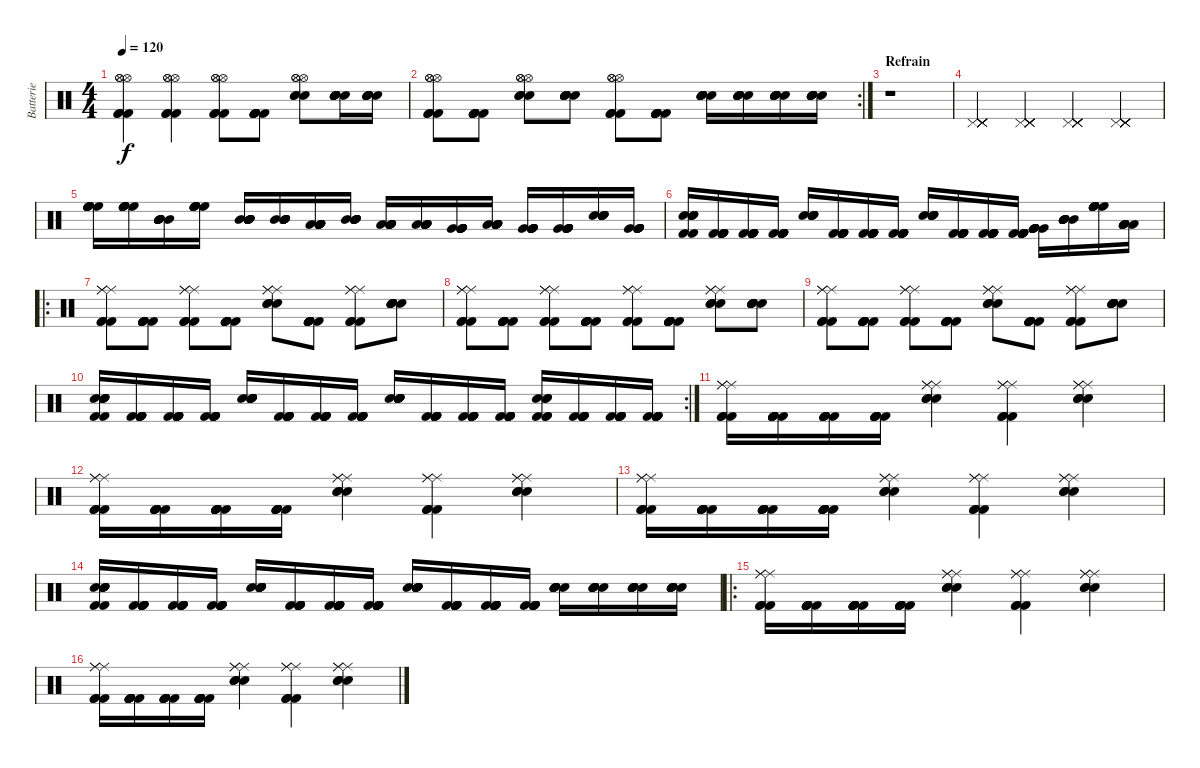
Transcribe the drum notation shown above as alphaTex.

\track ("Batterie" "Batterie") {instrument percussion}
\staff {score}
\articulation defaults
\ts (4 4)
\tempo 120
\clef neutral
\ks c
("Hi-Hat (open)" "Hi-Hat (open)" "Hi-Hat (open)" "Kick (hit) 2" "Kick (hit) 2" "Kick (hit) 2").4{dy f} ("Hi-Hat (open)" "Hi-Hat (open)" "Hi-Hat (open)" "Kick (hit) 2" "Kick (hit) 2" "Kick (hit) 2").4 ("Hi-Hat (open)" "Hi-Hat (open)" "Hi-Hat (open)" "Kick (hit) 2" "Kick (hit) 2" "Kick (hit) 2").8 ("Kick (hit) 2" "Kick (hit) 2" "Kick (hit) 2" "Kick (hit) 2" "Kick (hit) 2" "Kick (hit) 2").8 ("Hi-Hat (open)" "Hi-Hat (open)" "Hi-Hat (open)" "Snare (hit) 2" "Snare (hit) 2" "Snare (hit) 2").8 ("Snare (hit) 2" "Snare (hit) 2" "Snare (hit) 2" "Snare (hit) 2" "Snare (hit) 2" "Snare (hit) 2").16 ("Snare (hit) 2" "Snare (hit) 2" "Snare (hit) 2" "Snare (hit) 2" "Snare (hit) 2" "Snare (hit) 2").16 |
\rc 2
("Hi-Hat (open)" "Hi-Hat (open)" "Hi-Hat (open)" "Kick (hit) 2" "Kick (hit) 2" "Kick (hit) 2").8 ("Kick (hit) 2" "Kick (hit) 2" "Kick (hit) 2" "Kick (hit) 2" "Kick (hit) 2" "Kick (hit) 2").8 ("Hi-Hat (open)" "Hi-Hat (open)" "Hi-Hat (open)" "Snare (hit) 2" "Snare (hit) 2" "Snare (hit) 2").8 ("Snare (hit) 2" "Snare (hit) 2" "Snare (hit) 2" "Snare (hit) 2" "Snare (hit) 2" "Snare (hit) 2").8 ("Hi-Hat (open)" "Kick (hit) 2" "Kick (hit) 2" "Kick (hit) 2" "Hi-Hat (open)" "Hi-Hat (open)").8 ("Kick (hit) 2" "Kick (hit) 2" "Kick (hit) 2" "Kick (hit) 2" "Kick (hit) 2" "Kick (hit) 2").8 ("Snare (hit) 2" "Snare (hit) 2" "Snare (hit) 2" "Snare (hit) 2" "Snare (hit) 2" "Snare (hit) 2").16 ("Snare (hit) 2" "Snare (hit) 2" "Snare (hit) 2" "Snare (hit) 2" "Snare (hit) 2" "Snare (hit) 2").16 ("Snare (hit) 2" "Snare (hit) 2" "Snare (hit) 2" "Snare (hit) 2" "Snare (hit) 2" "Snare (hit) 2").16 ("Snare (hit) 2" "Snare (hit) 2" "Snare (hit) 2" "Snare (hit) 2" "Snare (hit) 2" "Snare (hit) 2").16 |
\section ("" "Refrain")
r.1 |
("Pedal Hi-Hat (hit)" "Pedal Hi-Hat (hit)" "Pedal Hi-Hat (hit)" "Pedal Hi-Hat (hit)" "Pedal Hi-Hat (hit)" "Pedal Hi-Hat (hit)").4 ("Pedal Hi-Hat (hit)" "Pedal Hi-Hat (hit)" "Pedal Hi-Hat (hit)" "Pedal Hi-Hat (hit)" "Pedal Hi-Hat (hit)" "Pedal Hi-Hat (hit)").4 ("Pedal Hi-Hat (hit)" "Pedal Hi-Hat (hit)" "Pedal Hi-Hat (hit)" "Pedal Hi-Hat (hit)" "Pedal Hi-Hat (hit)" "Pedal Hi-Hat (hit)").4 ("Pedal Hi-Hat (hit)" "Pedal Hi-Hat (hit)" "Pedal Hi-Hat (hit)" "Pedal Hi-Hat (hit)" "Pedal Hi-Hat (hit)" "Pedal Hi-Hat (hit)").4 |
("High Floor Tom (hit)" "High Floor Tom (hit)" "High Floor Tom (hit)" "High Floor Tom (hit)" "High Floor Tom (hit)" "High Floor Tom (hit)").16 ("High Floor Tom (hit)" "High Floor Tom (hit)" "High Floor Tom (hit)" "High Floor Tom (hit)" "High Floor Tom (hit)" "High Floor Tom (hit)").16 ("Mid Tom (hit)" "Mid Tom (hit)" "Mid Tom (hit)" "Mid Tom (hit)" "Mid Tom (hit)" "Mid Tom (hit)").16 ("High Floor Tom (hit)" "High Floor Tom (hit)" "High Floor Tom (hit)" "High Floor Tom (hit)" "High Floor Tom (hit)" "High Floor Tom (hit)").16 ("Mid Tom (hit)" "Mid Tom (hit)" "Mid Tom (hit)" "Mid Tom (hit)" "Mid Tom (hit)" "Mid Tom (hit)").16 ("Mid Tom (hit)" "Mid Tom (hit)" "Mid Tom (hit)" "Mid Tom (hit)" "Mid Tom (hit)" "Mid Tom (hit)").16 ("Low Tom (hit)" "Low Tom (hit)" "Low Tom (hit)" "Low Tom (hit)" "Low Tom (hit)" "Low Tom (hit)").16 ("Mid Tom (hit)" "Mid Tom (hit)" "Mid Tom (hit)" "Mid Tom (hit)" "Mid Tom (hit)" "Mid Tom (hit)").16 ("Low Tom (hit)" "Low Tom (hit)" "Low Tom (hit)" "Low Tom (hit)" "Low Tom (hit)" "Low Tom (hit)").16 ("Low Tom (hit)" "Low Tom (hit)" "Low Tom (hit)" "Low Tom (hit)" "Low Tom (hit)" "Low Tom (hit)").16 ("Very Low Tom (hit)" "Very Low Tom (hit)" "Very Low Tom (hit)" "Very Low Tom (hit)" "Very Low Tom (hit)" "Very Low Tom (hit)").16 ("Low Tom (hit)" "Low Tom (hit)" "Low Tom (hit)" "Low Tom (hit)" "Low Tom (hit)" "Low Tom (hit)").16 ("Very Low Tom (hit)" "Very Low Tom (hit)" "Very Low Tom (hit)" "Very Low Tom (hit)" "Very Low Tom (hit)" "Very Low Tom (hit)").16 ("Very Low Tom (hit)" "Very Low Tom (hit)" "Very Low Tom (hit)" "Very Low Tom (hit)" "Very Low Tom (hit)" "Very Low Tom (hit)").16 ("Snare (hit) 2" "Snare (hit) 2" "Snare (hit) 2" "Snare (hit) 2" "Snare (hit) 2" "Snare (hit) 2").16 ("Very Low Tom (hit)" "Very Low Tom (hit)" "Very Low Tom (hit)" "Very Low Tom (hit)" "Very Low Tom (hit)" "Very Low Tom (hit)").16 |
("Snare (hit) 2" "Snare (hit) 2" "Snare (hit) 2" "Snare (hit) 2" "Kick (hit) 2" "Kick (hit) 2").16 ("Kick (hit) 2" "Kick (hit) 2" "Kick (hit) 2" "Kick (hit) 2" "Kick (hit) 2" "Kick (hit) 2").16 ("Kick (hit) 2" "Kick (hit) 2" "Kick (hit) 2" "Kick (hit) 2" "Kick (hit) 2" "Kick (hit) 2").16 ("Kick (hit) 2" "Kick (hit) 2" "Kick (hit) 2" "Kick (hit) 2" "Kick (hit) 2" "Kick (hit) 2").16 ("Snare (hit) 2" "Snare (hit) 2" "Snare (hit) 2" "Snare (hit) 2" "Snare (hit) 2" "Snare (hit) 2").16 ("Kick (hit) 2" "Kick (hit) 2" "Kick (hit) 2" "Kick (hit) 2" "Kick (hit) 2" "Kick (hit) 2").16 ("Kick (hit) 2" "Kick (hit) 2" "Kick (hit) 2" "Kick (hit) 2" "Kick (hit) 2" "Kick (hit) 2").16 ("Kick (hit) 2" "Kick (hit) 2" "Kick (hit) 2" "Kick (hit) 2" "Kick (hit) 2" "Kick (hit) 2").16 ("Snare (hit) 2" "Snare (hit) 2" "Snare (hit) 2" "Snare (hit) 2" "Snare (hit) 2" "Snare (hit) 2").16 ("Kick (hit) 2" "Kick (hit) 2" "Kick (hit) 2" "Kick (hit) 2" "Kick (hit) 2" "Kick (hit) 2").16 ("Kick (hit) 2" "Kick (hit) 2" "Kick (hit) 2" "Kick (hit) 2" "Kick (hit) 2" "Kick (hit) 2").16 ("Kick (hit) 2" "Kick (hit) 2" "Kick (hit) 2" "Kick (hit) 2" "Kick (hit) 2" "Kick (hit) 2").16 ("Very Low Tom (hit)" "Very Low Tom (hit)" "Very Low Tom (hit)" "Very Low Tom (hit)" "Very Low Tom (hit)" "Very Low Tom (hit)").16 ("Mid Tom (hit)" "Mid Tom (hit)" "Mid Tom (hit)" "Mid Tom (hit)" "Mid Tom (hit)" "Mid Tom (hit)").16 ("High Floor Tom (hit)" "High Floor Tom (hit)" "High Floor Tom (hit)" "High Floor Tom (hit)" "High Floor Tom (hit)" "High Floor Tom (hit)").16 ("Low Floor Tom (hit)" "Low Floor Tom (hit)" "Low Floor Tom (hit)" "Low Floor Tom (hit)" "Low Floor Tom (hit)" "Low Floor Tom (hit)").16 |
\ro
("Ride (middle)" "Ride (middle)" "Ride (middle)" "Kick (hit) 2" "Kick (hit) 2" "Kick (hit) 2").8 ("Kick (hit) 2" "Kick (hit) 2" "Kick (hit) 2" "Kick (hit) 2" "Kick (hit) 2" "Kick (hit) 2").8 ("Ride (middle)" "Ride (middle)" "Ride (middle)" "Kick (hit) 2" "Kick (hit) 2" "Kick (hit) 2").8 ("Kick (hit) 2" "Kick (hit) 2" "Kick (hit) 2" "Kick (hit) 2" "Kick (hit) 2" "Kick (hit) 2").8 ("Snare (hit) 2" "Snare (hit) 2" "Ride (middle)" "Ride (middle)" "Ride (middle)" "Snare (hit) 2").8 ("Kick (hit) 2" "Kick (hit) 2" "Kick (hit) 2" "Kick (hit) 2" "Kick (hit) 2" "Kick (hit) 2").8 ("Ride (middle)" "Ride (middle)" "Ride (middle)" "Kick (hit) 2" "Kick (hit) 2" "Kick (hit) 2").8 ("Snare (hit) 2" "Snare (hit) 2" "Snare (hit) 2" "Snare (hit) 2" "Snare (hit) 2" "Snare (hit) 2").8 |
("Ride (middle)" "Ride (middle)" "Ride (middle)" "Kick (hit) 2" "Kick (hit) 2" "Kick (hit) 2").8 ("Kick (hit) 2" "Kick (hit) 2" "Kick (hit) 2" "Kick (hit) 2" "Kick (hit) 2" "Kick (hit) 2").8 ("Ride (middle)" "Ride (middle)" "Ride (middle)" "Kick (hit) 2" "Kick (hit) 2" "Kick (hit) 2").8 ("Kick (hit) 2" "Kick (hit) 2" "Kick (hit) 2" "Kick (hit) 2" "Kick (hit) 2" "Kick (hit) 2").8 ("Kick (hit) 2" "Kick (hit) 2" "Ride (middle)" "Ride (middle)" "Ride (middle)" "Kick (hit) 2").8 ("Kick (hit) 2" "Kick (hit) 2" "Kick (hit) 2" "Kick (hit) 2" "Kick (hit) 2" "Kick (hit) 2").8 ("Ride (middle)" "Ride (middle)" "Ride (middle)" "Snare (hit) 2" "Snare (hit) 2" "Snare (hit) 2").8 ("Snare (hit) 2" "Snare (hit) 2" "Snare (hit) 2" "Snare (hit) 2" "Snare (hit) 2" "Snare (hit) 2").8 |
("Ride (middle)" "Ride (middle)" "Ride (middle)" "Kick (hit) 2" "Kick (hit) 2" "Kick (hit) 2").8 ("Kick (hit) 2" "Kick (hit) 2" "Kick (hit) 2" "Kick (hit) 2" "Kick (hit) 2" "Kick (hit) 2").8 ("Ride (middle)" "Ride (middle)" "Ride (middle)" "Kick (hit) 2" "Kick (hit) 2" "Kick (hit) 2").8 ("Kick (hit) 2" "Kick (hit) 2" "Kick (hit) 2" "Kick (hit) 2" "Kick (hit) 2" "Kick (hit) 2").8 ("Snare (hit) 2" "Snare (hit) 2" "Ride (middle)" "Ride (middle)" "Ride (middle)" "Snare (hit) 2").8 ("Kick (hit) 2" "Kick (hit) 2" "Kick (hit) 2" "Kick (hit) 2" "Kick (hit) 2" "Kick (hit) 2").8 ("Ride (middle)" "Ride (middle)" "Ride (middle)" "Kick (hit) 2" "Kick (hit) 2" "Kick (hit) 2").8 ("Snare (hit) 2" "Snare (hit) 2" "Snare (hit) 2" "Snare (hit) 2" "Snare (hit) 2" "Snare (hit) 2").8 |
\rc 2
("Snare (hit) 2" "Snare (hit) 2" "Snare (hit) 2" "Snare (hit) 2" "Kick (hit) 2" "Kick (hit) 2").16 ("Kick (hit) 2" "Kick (hit) 2" "Kick (hit) 2" "Kick (hit) 2" "Kick (hit) 2" "Kick (hit) 2").16 ("Kick (hit) 2" "Kick (hit) 2" "Kick (hit) 2" "Kick (hit) 2" "Kick (hit) 2" "Kick (hit) 2").16 ("Kick (hit) 2" "Kick (hit) 2" "Kick (hit) 2" "Kick (hit) 2" "Kick (hit) 2" "Kick (hit) 2").16 ("Snare (hit) 2" "Snare (hit) 2" "Snare (hit) 2" "Snare (hit) 2" "Snare (hit) 2" "Snare (hit) 2").16 ("Kick (hit) 2" "Kick (hit) 2" "Kick (hit) 2" "Kick (hit) 2" "Kick (hit) 2" "Kick (hit) 2").16 ("Kick (hit) 2" "Kick (hit) 2" "Kick (hit) 2" "Kick (hit) 2" "Kick (hit) 2" "Kick (hit) 2").16 ("Kick (hit) 2" "Kick (hit) 2" "Kick (hit) 2" "Kick (hit) 2" "Kick (hit) 2" "Kick (hit) 2").16 ("Snare (hit) 2" "Snare (hit) 2" "Snare (hit) 2" "Snare (hit) 2" "Snare (hit) 2" "Snare (hit) 2").16 ("Kick (hit) 2" "Kick (hit) 2" "Kick (hit) 2" "Kick (hit) 2" "Kick (hit) 2" "Kick (hit) 2").16 ("Kick (hit) 2" "Kick (hit) 2" "Kick (hit) 2" "Kick (hit) 2" "Kick (hit) 2" "Kick (hit) 2").16 ("Kick (hit) 2" "Kick (hit) 2" "Kick (hit) 2" "Kick (hit) 2" "Kick (hit) 2" "Kick (hit) 2").16 ("Kick (hit) 2" "Kick (hit) 2" "Kick (hit) 2" "Snare (hit) 2" "Snare (hit) 2" "Snare (hit) 2").16 ("Kick (hit) 2" "Kick (hit) 2" "Kick (hit) 2" "Kick (hit) 2" "Kick (hit) 2" "Kick (hit) 2").16 ("Kick (hit) 2" "Kick (hit) 2" "Kick (hit) 2" "Kick (hit) 2" "Kick (hit) 2" "Kick (hit) 2").16 ("Kick (hit) 2" "Kick (hit) 2" "Kick (hit) 2" "Kick (hit) 2" "Kick (hit) 2" "Kick (hit) 2").16 |
("Ride (middle)" "Ride (middle)" "Ride (middle)" "Kick (hit) 2" "Kick (hit) 2" "Kick (hit) 2").16 ("Kick (hit) 2" "Kick (hit) 2" "Kick (hit) 2" "Kick (hit) 2" "Kick (hit) 2" "Kick (hit) 2").16 ("Kick (hit) 2" "Kick (hit) 2" "Kick (hit) 2" "Kick (hit) 2" "Kick (hit) 2" "Kick (hit) 2").16 ("Kick (hit) 2" "Kick (hit) 2" "Kick (hit) 2" "Kick (hit) 2" "Kick (hit) 2" "Kick (hit) 2").16 ("Ride (middle)" "Ride (middle)" "Ride (middle)" "Snare (hit) 2" "Snare (hit) 2" "Snare (hit) 2").4 ("Kick (hit) 2" "Ride (middle)" "Ride (middle)" "Ride (middle)" "Kick (hit) 2" "Kick (hit) 2").4 ("Snare (hit) 2" "Snare (hit) 2" "Ride (middle)" "Ride (middle)" "Ride (middle)" "Snare (hit) 2").4 |
("Ride (middle)" "Ride (middle)" "Ride (middle)" "Kick (hit) 2" "Kick (hit) 2" "Kick (hit) 2").16 ("Kick (hit) 2" "Kick (hit) 2" "Kick (hit) 2" "Kick (hit) 2" "Kick (hit) 2" "Kick (hit) 2").16 ("Kick (hit) 2" "Kick (hit) 2" "Kick (hit) 2" "Kick (hit) 2" "Kick (hit) 2" "Kick (hit) 2").16 ("Kick (hit) 2" "Kick (hit) 2" "Kick (hit) 2" "Kick (hit) 2" "Kick (hit) 2" "Kick (hit) 2").16 ("Ride (middle)" "Ride (middle)" "Ride (middle)" "Snare (hit) 2" "Snare (hit) 2" "Snare (hit) 2").4 ("Kick (hit) 2" "Ride (middle)" "Ride (middle)" "Ride (middle)" "Kick (hit) 2" "Kick (hit) 2").4 ("Snare (hit) 2" "Snare (hit) 2" "Ride (middle)" "Ride (middle)" "Ride (middle)" "Snare (hit) 2").4 |
("Ride (middle)" "Ride (middle)" "Ride (middle)" "Kick (hit) 2" "Kick (hit) 2" "Kick (hit) 2").16 ("Kick (hit) 2" "Kick (hit) 2" "Kick (hit) 2" "Kick (hit) 2" "Kick (hit) 2" "Kick (hit) 2").16 ("Kick (hit) 2" "Kick (hit) 2" "Kick (hit) 2" "Kick (hit) 2" "Kick (hit) 2" "Kick (hit) 2").16 ("Kick (hit) 2" "Kick (hit) 2" "Kick (hit) 2" "Kick (hit) 2" "Kick (hit) 2" "Kick (hit) 2").16 ("Ride (middle)" "Ride (middle)" "Ride (middle)" "Snare (hit) 2" "Snare (hit) 2" "Snare (hit) 2").4 ("Kick (hit) 2" "Ride (middle)" "Ride (middle)" "Ride (middle)" "Kick (hit) 2" "Kick (hit) 2").4 ("Snare (hit) 2" "Snare (hit) 2" "Ride (middle)" "Ride (middle)" "Ride (middle)" "Snare (hit) 2").4 |
("Snare (hit) 2" "Snare (hit) 2" "Snare (hit) 2" "Snare (hit) 2" "Kick (hit) 2" "Kick (hit) 2").16 ("Kick (hit) 2" "Kick (hit) 2" "Kick (hit) 2" "Kick (hit) 2" "Kick (hit) 2" "Kick (hit) 2").16 ("Kick (hit) 2" "Kick (hit) 2" "Kick (hit) 2" "Kick (hit) 2" "Kick (hit) 2" "Kick (hit) 2").16 ("Kick (hit) 2" "Kick (hit) 2" "Kick (hit) 2" "Kick (hit) 2" "Kick (hit) 2" "Kick (hit) 2").16 ("Snare (hit) 2" "Snare (hit) 2" "Snare (hit) 2" "Snare (hit) 2" "Snare (hit) 2" "Snare (hit) 2").16 ("Kick (hit) 2" "Kick (hit) 2" "Kick (hit) 2" "Kick (hit) 2" "Kick (hit) 2" "Kick (hit) 2").16 ("Kick (hit) 2" "Kick (hit) 2" "Kick (hit) 2" "Kick (hit) 2" "Kick (hit) 2" "Kick (hit) 2").16 ("Kick (hit) 2" "Kick (hit) 2" "Kick (hit) 2" "Kick (hit) 2" "Kick (hit) 2" "Kick (hit) 2").16 ("Snare (hit) 2" "Snare (hit) 2" "Snare (hit) 2" "Snare (hit) 2" "Snare (hit) 2" "Snare (hit) 2").16 ("Kick (hit) 2" "Kick (hit) 2" "Kick (hit) 2" "Kick (hit) 2" "Kick (hit) 2" "Kick (hit) 2").16 ("Kick (hit) 2" "Kick (hit) 2" "Kick (hit) 2" "Kick (hit) 2" "Kick (hit) 2" "Kick (hit) 2").16 ("Kick (hit) 2" "Kick (hit) 2" "Kick (hit) 2" "Kick (hit) 2" "Kick (hit) 2" "Kick (hit) 2").16 ("Snare (hit) 2" "Snare (hit) 2" "Snare (hit) 2" "Snare (hit) 2" "Snare (hit) 2" "Snare (hit) 2").16 ("Snare (hit) 2" "Snare (hit) 2" "Snare (hit) 2" "Snare (hit) 2" "Snare (hit) 2" "Snare (hit) 2").16 ("Snare (hit) 2" "Snare (hit) 2" "Snare (hit) 2" "Snare (hit) 2" "Snare (hit) 2" "Snare (hit) 2").16 ("Snare (hit) 2" "Snare (hit) 2" "Snare (hit) 2" "Snare (hit) 2" "Snare (hit) 2" "Snare (hit) 2").16 |
\ro
("Ride (middle)" "Ride (middle)" "Ride (middle)" "Kick (hit) 2" "Kick (hit) 2" "Kick (hit) 2").16 ("Kick (hit) 2" "Kick (hit) 2" "Kick (hit) 2" "Kick (hit) 2" "Kick (hit) 2" "Kick (hit) 2").16 ("Kick (hit) 2" "Kick (hit) 2" "Kick (hit) 2" "Kick (hit) 2" "Kick (hit) 2" "Kick (hit) 2").16 ("Kick (hit) 2" "Kick (hit) 2" "Kick (hit) 2" "Kick (hit) 2" "Kick (hit) 2" "Kick (hit) 2").16 ("Ride (middle)" "Ride (middle)" "Ride (middle)" "Snare (hit) 2" "Snare (hit) 2" "Snare (hit) 2").4 ("Kick (hit) 2" "Ride (middle)" "Ride (middle)" "Ride (middle)" "Kick (hit) 2" "Kick (hit) 2").4 ("Snare (hit) 2" "Snare (hit) 2" "Ride (middle)" "Ride (middle)" "Ride (middle)" "Snare (hit) 2").4 |
("Ride (middle)" "Ride (middle)" "Ride (middle)" "Kick (hit) 2" "Kick (hit) 2" "Kick (hit) 2").16 ("Kick (hit) 2" "Kick (hit) 2" "Kick (hit) 2" "Kick (hit) 2" "Kick (hit) 2" "Kick (hit) 2").16 ("Kick (hit) 2" "Kick (hit) 2" "Kick (hit) 2" "Kick (hit) 2" "Kick (hit) 2" "Kick (hit) 2").16 ("Kick (hit) 2" "Kick (hit) 2" "Kick (hit) 2" "Kick (hit) 2" "Kick (hit) 2" "Kick (hit) 2").16 ("Ride (middle)" "Ride (middle)" "Ride (middle)" "Snare (hit) 2" "Snare (hit) 2" "Snare (hit) 2").4 ("Kick (hit) 2" "Ride (middle)" "Ride (middle)" "Ride (middle)" "Kick (hit) 2" "Kick (hit) 2").4 ("Snare (hit) 2" "Snare (hit) 2" "Ride (middle)" "Ride (middle)" "Ride (middle)" "Snare (hit) 2").4
